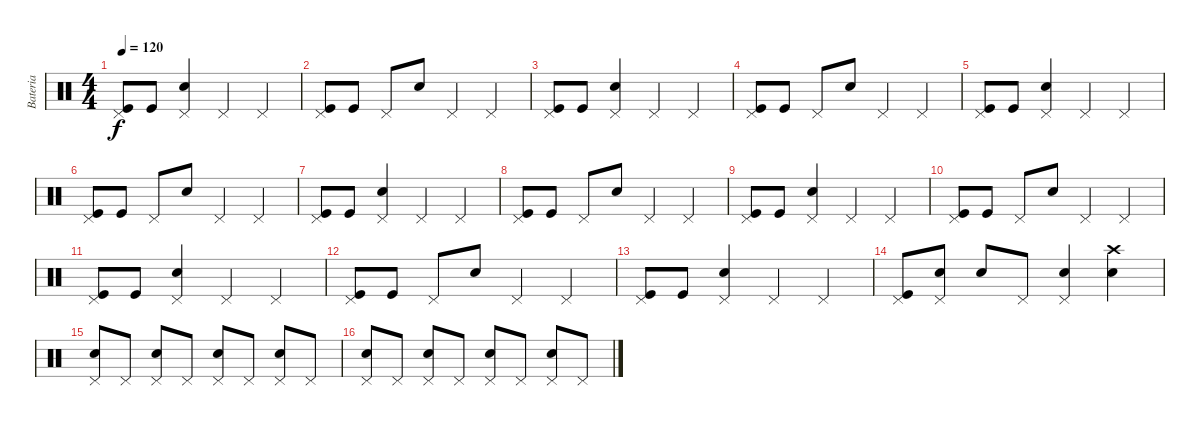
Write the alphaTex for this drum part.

\track ("Bateria" "Bateria") {instrument percussion}
\staff {score}
\articulation defaults
\ts (4 4)
\tempo 120
\clef neutral
\ks c
("Pedal Hi-Hat (hit)" "Kick (hit)").8{dy f} "Kick (hit)".8 ("Pedal Hi-Hat (hit)" "Snare (hit) 2").4 "Pedal Hi-Hat (hit)".4 "Pedal Hi-Hat (hit)".4 |
("Pedal Hi-Hat (hit)" "Kick (hit)").8 "Kick (hit)".8 "Pedal Hi-Hat (hit)".8 "Snare (hit) 2".8 "Pedal Hi-Hat (hit)".4 "Pedal Hi-Hat (hit)".4 |
("Pedal Hi-Hat (hit)" "Kick (hit)").8 "Kick (hit)".8 ("Pedal Hi-Hat (hit)" "Snare (hit) 2").4 "Pedal Hi-Hat (hit)".4 "Pedal Hi-Hat (hit)".4 |
("Pedal Hi-Hat (hit)" "Kick (hit)").8 "Kick (hit)".8 "Pedal Hi-Hat (hit)".8 "Snare (hit) 2".8 "Pedal Hi-Hat (hit)".4 "Pedal Hi-Hat (hit)".4 |
("Pedal Hi-Hat (hit)" "Kick (hit)").8 "Kick (hit)".8 ("Pedal Hi-Hat (hit)" "Snare (hit) 2").4 "Pedal Hi-Hat (hit)".4 "Pedal Hi-Hat (hit)".4 |
("Pedal Hi-Hat (hit)" "Kick (hit)").8 "Kick (hit)".8 "Pedal Hi-Hat (hit)".8 "Snare (hit) 2".8 "Pedal Hi-Hat (hit)".4 "Pedal Hi-Hat (hit)".4 |
("Pedal Hi-Hat (hit)" "Kick (hit)").8 "Kick (hit)".8 ("Pedal Hi-Hat (hit)" "Snare (hit) 2").4 "Pedal Hi-Hat (hit)".4 "Pedal Hi-Hat (hit)".4 |
("Pedal Hi-Hat (hit)" "Kick (hit)").8 "Kick (hit)".8 "Pedal Hi-Hat (hit)".8 "Snare (hit) 2".8 "Pedal Hi-Hat (hit)".4 "Pedal Hi-Hat (hit)".4 |
("Pedal Hi-Hat (hit)" "Kick (hit)").8 "Kick (hit)".8 ("Pedal Hi-Hat (hit)" "Snare (hit) 2").4 "Pedal Hi-Hat (hit)".4 "Pedal Hi-Hat (hit)".4 |
("Pedal Hi-Hat (hit)" "Kick (hit)").8 "Kick (hit)".8 "Pedal Hi-Hat (hit)".8 "Snare (hit) 2".8 "Pedal Hi-Hat (hit)".4 "Pedal Hi-Hat (hit)".4 |
("Pedal Hi-Hat (hit)" "Kick (hit)").8 "Kick (hit)".8 ("Pedal Hi-Hat (hit)" "Snare (hit) 2").4 "Pedal Hi-Hat (hit)".4 "Pedal Hi-Hat (hit)".4 |
("Pedal Hi-Hat (hit)" "Kick (hit)").8 "Kick (hit)".8 "Pedal Hi-Hat (hit)".8 "Snare (hit) 2".8 "Pedal Hi-Hat (hit)".4 "Pedal Hi-Hat (hit)".4 |
("Pedal Hi-Hat (hit)" "Kick (hit)").8 "Kick (hit)".8 ("Pedal Hi-Hat (hit)" "Snare (hit) 2").4 "Pedal Hi-Hat (hit)".4 "Pedal Hi-Hat (hit)".4 |
("Pedal Hi-Hat (hit)" "Kick (hit)").8 ("Pedal Hi-Hat (hit)" "Snare (hit) 2").8 "Snare (hit) 2".8 "Pedal Hi-Hat (hit)".8 ("Pedal Hi-Hat (hit)" "Snare (hit) 2").4 ("Crash high (hit)" "Snare (hit) 2").4 |
("Pedal Hi-Hat (hit)" "Snare (hit) 2").8 "Pedal Hi-Hat (hit)".8 ("Pedal Hi-Hat (hit)" "Snare (hit) 2").8 "Pedal Hi-Hat (hit)".8 ("Pedal Hi-Hat (hit)" "Snare (hit) 2").8 "Pedal Hi-Hat (hit)".8 ("Pedal Hi-Hat (hit)" "Snare (hit) 2").8 "Pedal Hi-Hat (hit)".8 |
("Pedal Hi-Hat (hit)" "Snare (hit) 2").8 "Pedal Hi-Hat (hit)".8 ("Pedal Hi-Hat (hit)" "Snare (hit) 2").8 "Pedal Hi-Hat (hit)".8 ("Pedal Hi-Hat (hit)" "Snare (hit) 2").8 "Pedal Hi-Hat (hit)".8 ("Pedal Hi-Hat (hit)" "Snare (hit) 2").8 "Pedal Hi-Hat (hit)".8
